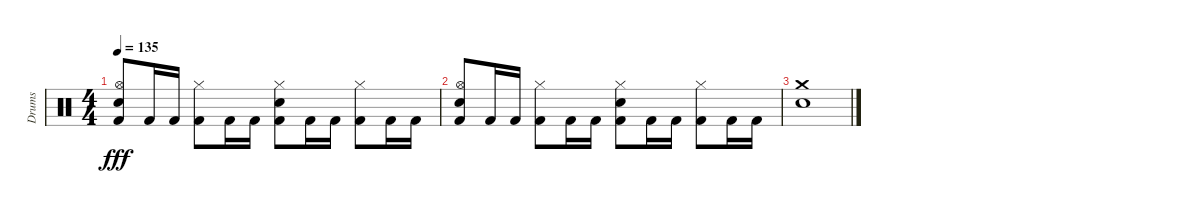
\track ("Drums" "Drums") {instrument percussion}
\staff {score}
\articulation defaults
\ts (4 4)
\tempo 135
\clef neutral
\ks c
("Electric Snare (hit)" "Hi-Hat (open)" "Kick (hit) 2").8{dy fff} "Kick (hit) 2".16 "Kick (hit) 2".16 ("Hi-Hat (closed)" "Kick (hit) 2").8 "Kick (hit) 2".16 "Kick (hit) 2".16 ("Hi-Hat (closed)" "Electric Snare (hit)" "Kick (hit) 2").8 "Kick (hit) 2".16 "Kick (hit) 2".16 ("Hi-Hat (closed)" "Kick (hit) 2").8 "Kick (hit) 2".16 "Kick (hit) 2".16 |
("Electric Snare (hit)" "Hi-Hat (open)" "Kick (hit) 2").8 "Kick (hit) 2".16 "Kick (hit) 2".16 ("Hi-Hat (closed)" "Kick (hit) 2").8 "Kick (hit) 2".16 "Kick (hit) 2".16 ("Hi-Hat (closed)" "Electric Snare (hit)" "Kick (hit) 2").8 "Kick (hit) 2".16 "Kick (hit) 2".16 ("Hi-Hat (closed)" "Kick (hit) 2").8 "Kick (hit) 2".16 "Kick (hit) 2".16 |
("Crash medium (hit)" "Electric Snare (hit)").1
